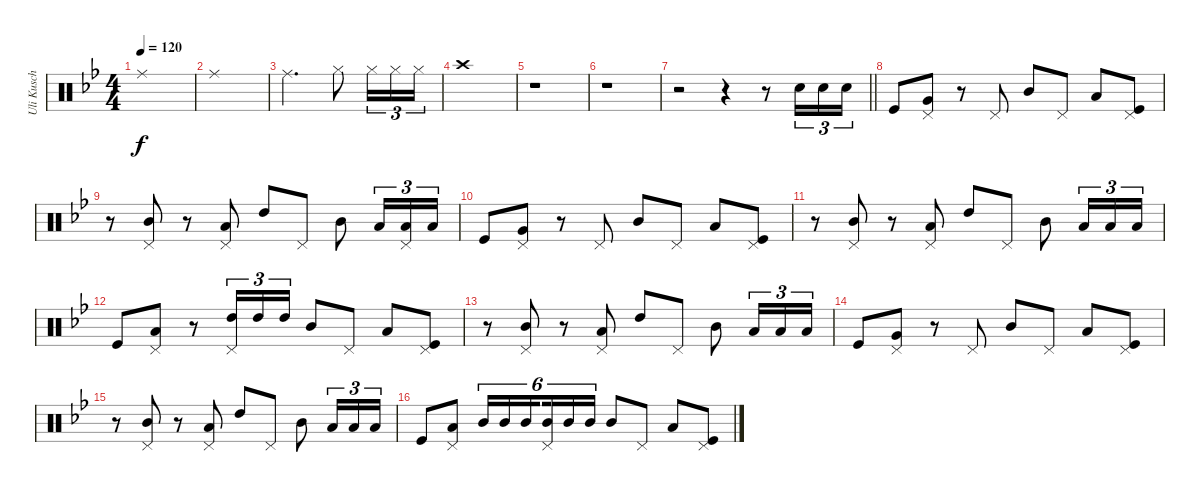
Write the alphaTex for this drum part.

\track ("Uli Kusch" "Uli Kusch") {instrument percussion}
\staff {score}
\articulation defaults
\ts (4 4)
\tempo 120
\clef neutral
\ks gminor "Ride (middle)".1{dy f}
|
"Ride (middle)".1 |
"Ride (middle)".2{d} "Hi-Hat (closed)".8 "Hi-Hat (closed)".16{tu (3 2)} "Hi-Hat (closed)".16{tu (3 2)} "Hi-Hat (closed)".16{tu (3 2)} |
"Crash high (hit)".1 |
r.1 |
r.1 |
\barLineRight lightlight
r.2 r.4 r.8 "Snare (hit) 2".16{tu (3 2)} "Snare (hit) 2".16{tu (3 2)} "Snare (hit) 2".16{tu (3 2)} |
"Kick (hit)".8 ("Very Low Tom (hit)" "Pedal Hi-Hat (hit)").8 r.8 "Pedal Hi-Hat (hit)".8 "Mid Tom (hit)".8 "Pedal Hi-Hat (hit)".8 "Low Tom (hit)".8 ("Pedal Hi-Hat (hit)" "Kick (hit)").8 |
r.8 ("Mid Tom (hit)" "Pedal Hi-Hat (hit)").8 r.8 ("Low Tom (hit)" "Pedal Hi-Hat (hit)").8 "High Tom (hit)".8 "Pedal Hi-Hat (hit)".8 "Mid Tom (hit)".8 "Low Tom (hit)".16{tu (3 2)} ("Low Tom (hit)" "Pedal Hi-Hat (hit)").16{tu (3 2)} "Low Tom (hit)".16{tu (3 2)} |
"Kick (hit)".8 ("Very Low Tom (hit)" "Pedal Hi-Hat (hit)").8 r.8 "Pedal Hi-Hat (hit)".8 "Mid Tom (hit)".8 "Pedal Hi-Hat (hit)".8 "Low Tom (hit)".8 ("Pedal Hi-Hat (hit)" "Kick (hit)").8 |
r.8 ("Mid Tom (hit)" "Pedal Hi-Hat (hit)").8 r.8 ("Low Tom (hit)" "Pedal Hi-Hat (hit)").8 "High Tom (hit)".8 "Pedal Hi-Hat (hit)".8 "Mid Tom (hit)".8 "Low Tom (hit)".16{tu (3 2)} "Low Tom (hit)".16{tu (3 2)} "Low Tom (hit)".16{tu (3 2)} |
"Kick (hit)".8 ("Low Tom (hit)" "Pedal Hi-Hat (hit)").8 r.8 ("High Tom (hit)" "Pedal Hi-Hat (hit)").16{tu (3 2)} "High Tom (hit)".16{tu (3 2)} "High Tom (hit)".16{tu (3 2)} "Mid Tom (hit)".8 "Pedal Hi-Hat (hit)".8 "Low Tom (hit)".8 ("Kick (hit)" "Pedal Hi-Hat (hit)").8 |
r.8 ("Mid Tom (hit)" "Pedal Hi-Hat (hit)").8 r.8 ("Low Tom (hit)" "Pedal Hi-Hat (hit)").8 "High Tom (hit)".8 "Pedal Hi-Hat (hit)".8 "Mid Tom (hit)".8 "Low Tom (hit)".16{tu (3 2)} "Low Tom (hit)".16{tu (3 2)} "Low Tom (hit)".16{tu (3 2)} |
"Kick (hit)".8 ("Very Low Tom (hit)" "Pedal Hi-Hat (hit)").8 r.8 "Pedal Hi-Hat (hit)".8 "Mid Tom (hit)".8 "Pedal Hi-Hat (hit)".8 "Low Tom (hit)".8 ("Pedal Hi-Hat (hit)" "Kick (hit)").8 |
r.8 ("Mid Tom (hit)" "Pedal Hi-Hat (hit)").8 r.8 ("Low Tom (hit)" "Pedal Hi-Hat (hit)").8 "High Tom (hit)".8 "Pedal Hi-Hat (hit)".8 "Mid Tom (hit)".8 "Low Tom (hit)".16{tu (3 2)} "Low Tom (hit)".16{tu (3 2)} "Low Tom (hit)".16{tu (3 2)} |
"Kick (hit)".8 ("Low Tom (hit)" "Pedal Hi-Hat (hit)").8 "Mid Tom (hit)".16{tu (6 4)} "Mid Tom (hit)".16{tu (6 4)} "Mid Tom (hit)".16{tu (6 4) beam splitsecondary} ("Mid Tom (hit)" "Pedal Hi-Hat (hit)").16{tu (6 4)} "Mid Tom (hit)".16{tu (6 4)} "Mid Tom (hit)".16{tu (6 4)} "Mid Tom (hit)".8 "Pedal Hi-Hat (hit)".8 "Low Tom (hit)".8 ("Kick (hit)" "Pedal Hi-Hat (hit)").8
